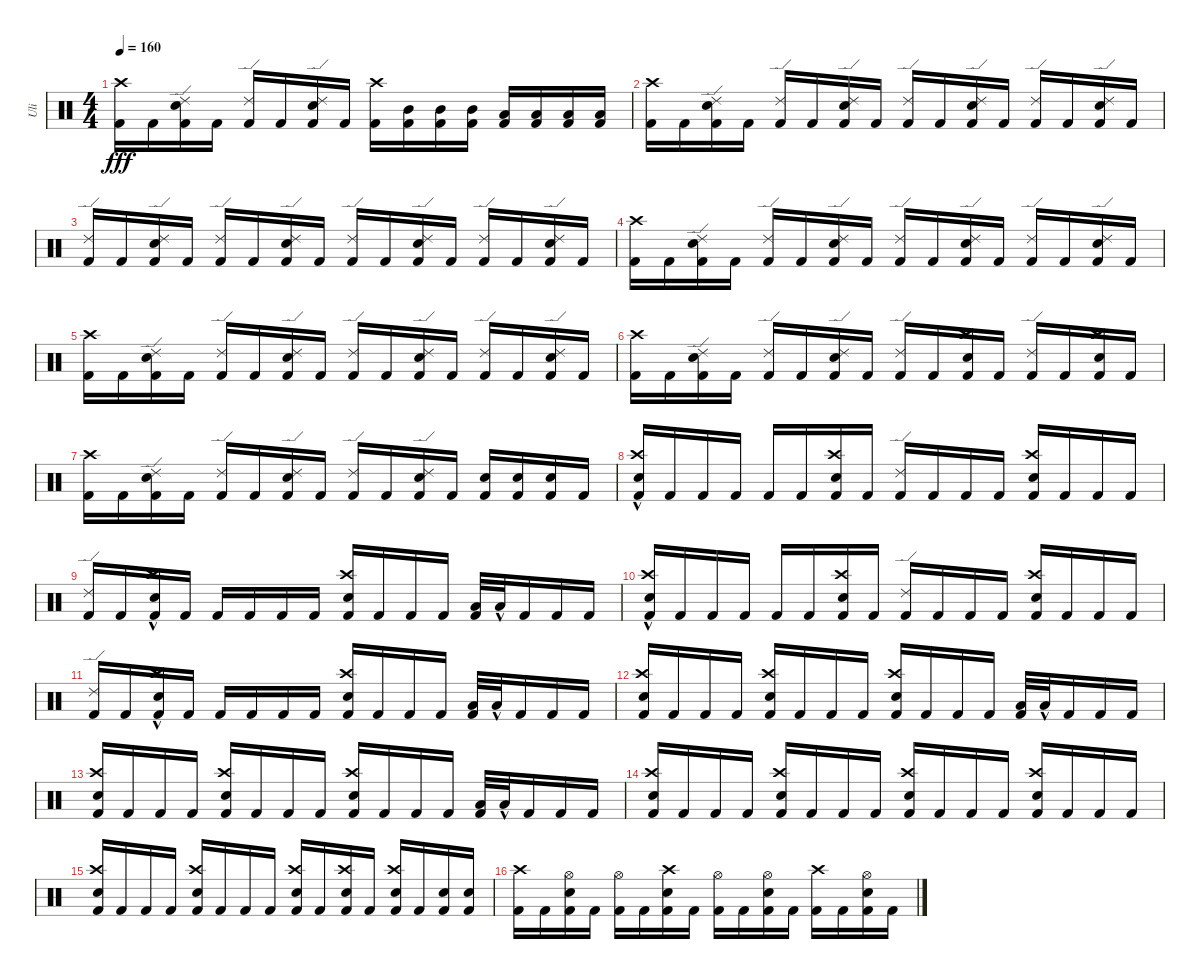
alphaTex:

\track ("Uli" "Uli") {instrument percussion}
\staff {score}
\articulation defaults
\ts (4 4)
\tempo 160
\clef neutral
\ks c
("Kick (hit) 2" "Crash high (hit)").16{dy fff} "Kick (hit) 2".16 ("Kick (hit) 2" "Electric Snare (hit)" "Ride (edge) 2").16 "Kick (hit) 2".16 ("Kick (hit) 2" "Ride (edge) 2").16 "Kick (hit) 2".16 ("Kick (hit) 2" "Electric Snare (hit)" "Ride (edge) 2").16 "Kick (hit) 2".16 ("Kick (hit) 2" "Crash high (hit)").16 ("Kick (hit) 2" "Mid Tom (hit)").16 ("Kick (hit) 2" "Mid Tom (hit)").16 ("Kick (hit) 2" "Mid Tom (hit)").16 ("Kick (hit) 2" "Low Tom (hit)").16 ("Kick (hit) 2" "Low Tom (hit)").16 ("Kick (hit) 2" "Low Tom (hit)").16 ("Kick (hit) 2" "Low Tom (hit)").16 |
("Kick (hit) 2" "Crash high (hit)").16 "Kick (hit) 2".16 ("Kick (hit) 2" "Electric Snare (hit)" "Ride (edge) 2").16 "Kick (hit) 2".16 ("Kick (hit) 2" "Ride (edge) 2").16 "Kick (hit) 2".16 ("Kick (hit) 2" "Electric Snare (hit)" "Ride (edge) 2").16 "Kick (hit) 2".16 ("Kick (hit) 2" "Ride (edge) 2").16 "Kick (hit) 2".16 ("Kick (hit) 2" "Electric Snare (hit)" "Ride (edge) 2").16 "Kick (hit) 2".16 ("Kick (hit) 2" "Ride (edge) 2").16 "Kick (hit) 2".16 ("Kick (hit) 2" "Electric Snare (hit)" "Ride (edge) 2").16 "Kick (hit) 2".16 |
("Kick (hit) 2" "Ride (edge) 2").16 "Kick (hit) 2".16 ("Kick (hit) 2" "Electric Snare (hit)" "Ride (edge) 2").16 "Kick (hit) 2".16 ("Kick (hit) 2" "Ride (edge) 2").16 "Kick (hit) 2".16 ("Kick (hit) 2" "Electric Snare (hit)" "Ride (edge) 2").16 "Kick (hit) 2".16 ("Kick (hit) 2" "Ride (edge) 2").16 "Kick (hit) 2".16 ("Kick (hit) 2" "Electric Snare (hit)" "Ride (edge) 2").16 "Kick (hit) 2".16 ("Kick (hit) 2" "Ride (edge) 2").16 "Kick (hit) 2".16 ("Kick (hit) 2" "Electric Snare (hit)" "Ride (edge) 2").16 "Kick (hit) 2".16 |
("Kick (hit) 2" "Crash high (hit)").16 "Kick (hit) 2".16 ("Kick (hit) 2" "Electric Snare (hit)" "Ride (edge) 2").16 "Kick (hit) 2".16 ("Kick (hit) 2" "Ride (edge) 2").16 "Kick (hit) 2".16 ("Kick (hit) 2" "Electric Snare (hit)" "Ride (edge) 2").16 "Kick (hit) 2".16 ("Kick (hit) 2" "Ride (edge) 2").16 "Kick (hit) 2".16 ("Kick (hit) 2" "Electric Snare (hit)" "Ride (edge) 2").16 "Kick (hit) 2".16 ("Kick (hit) 2" "Ride (edge) 2").16 "Kick (hit) 2".16 ("Kick (hit) 2" "Electric Snare (hit)" "Ride (edge) 2").16 "Kick (hit) 2".16 |
("Kick (hit) 2" "Crash high (hit)").16 "Kick (hit) 2".16 ("Kick (hit) 2" "Electric Snare (hit)" "Ride (edge) 2").16 "Kick (hit) 2".16 ("Kick (hit) 2" "Ride (edge) 2").16 "Kick (hit) 2".16 ("Kick (hit) 2" "Electric Snare (hit)" "Ride (edge) 2").16 "Kick (hit) 2".16 ("Kick (hit) 2" "Ride (edge) 2").16 "Kick (hit) 2".16 ("Kick (hit) 2" "Electric Snare (hit)" "Ride (edge) 2").16 "Kick (hit) 2".16 ("Kick (hit) 2" "Ride (edge) 2").16 "Kick (hit) 2".16 ("Kick (hit) 2" "Electric Snare (hit)" "Ride (edge) 2").16 "Kick (hit) 2".16 |
("Kick (hit) 2" "Crash high (hit)").16 "Kick (hit) 2".16 ("Kick (hit) 2" "Electric Snare (hit)" "Ride (edge) 2").16 "Kick (hit) 2".16 ("Kick (hit) 2" "Ride (edge) 2").16 "Kick (hit) 2".16 ("Kick (hit) 2" "Electric Snare (hit)" "Ride (edge) 2").16 "Kick (hit) 2".16 ("Kick (hit) 2" "Ride (edge) 2").16 "Kick (hit) 2".16 ("Kick (hit) 2" "Electric Snare (hit)" "Crash high (hit)").16 "Kick (hit) 2".16 ("Kick (hit) 2" "Ride (edge) 2").16 "Kick (hit) 2".16 ("Kick (hit) 2" "Electric Snare (hit)" "Crash high (hit)").16 "Kick (hit) 2".16 |
("Kick (hit) 2" "Crash high (hit)").16 "Kick (hit) 2".16 ("Kick (hit) 2" "Electric Snare (hit)" "Ride (edge) 2").16 "Kick (hit) 2".16 ("Kick (hit) 2" "Ride (edge) 2").16 "Kick (hit) 2".16 ("Kick (hit) 2" "Electric Snare (hit)" "Ride (edge) 2").16 "Kick (hit) 2".16 ("Kick (hit) 2" "Ride (edge) 2").16 "Kick (hit) 2".16 ("Kick (hit) 2" "Electric Snare (hit)" "Ride (edge) 2").16 "Kick (hit) 2".16 ("Kick (hit) 2" "Electric Snare (hit)").16 ("Kick (hit) 2" "Electric Snare (hit)").16 ("Kick (hit) 2" "Electric Snare (hit)").16 "Kick (hit) 2".16 |
("Kick (hit) 2" "Crash high (hit)" "Electric Snare (hit)"{hac}).16 "Kick (hit) 2".16 "Kick (hit) 2".16 "Kick (hit) 2".16 "Kick (hit) 2".16 "Kick (hit) 2".16 ("Kick (hit) 2" "Crash high (hit)" "Electric Snare (hit)").16 "Kick (hit) 2".16 ("Kick (hit) 2" "Ride (edge) 2").16 "Kick (hit) 2".16 "Kick (hit) 2".16 "Kick (hit) 2".16 ("Kick (hit) 2" "Electric Snare (hit)" "Crash high (hit)").16 "Kick (hit) 2".16 "Kick (hit) 2".16 "Kick (hit) 2".16 |
("Kick (hit) 2" "Ride (edge) 2").16 "Kick (hit) 2".16 ("Kick (hit) 2" "Crash high (hit)"{hac} "Electric Snare (hit)"{hac}).16 "Kick (hit) 2".16 "Kick (hit) 2".16 "Kick (hit) 2".16 "Kick (hit) 2".16 "Kick (hit) 2".16 ("Kick (hit) 2" "Crash high (hit)" "Electric Snare (hit)").16 "Kick (hit) 2".16 "Kick (hit) 2".16 "Kick (hit) 2".16 ("Kick (hit) 2" "Low Floor Tom (hit)").32 "Low Floor Tom (hit)"{hac}.32 "Kick (hit) 2".16 "Kick (hit) 2".16 "Kick (hit) 2".16 |
("Kick (hit) 2" "Crash high (hit)" "Electric Snare (hit)"{hac}).16 "Kick (hit) 2".16 "Kick (hit) 2".16 "Kick (hit) 2".16 "Kick (hit) 2".16 "Kick (hit) 2".16 ("Kick (hit) 2" "Crash high (hit)" "Electric Snare (hit)").16 "Kick (hit) 2".16 ("Kick (hit) 2" "Ride (edge) 2").16 "Kick (hit) 2".16 "Kick (hit) 2".16 "Kick (hit) 2".16 ("Kick (hit) 2" "Electric Snare (hit)" "Crash high (hit)").16 "Kick (hit) 2".16 "Kick (hit) 2".16 "Kick (hit) 2".16 |
("Kick (hit) 2" "Ride (edge) 2").16 "Kick (hit) 2".16 ("Kick (hit) 2" "Crash high (hit)"{hac} "Electric Snare (hit)"{hac}).16 "Kick (hit) 2".16 "Kick (hit) 2".16 "Kick (hit) 2".16 "Kick (hit) 2".16 "Kick (hit) 2".16 ("Kick (hit) 2" "Crash high (hit)" "Electric Snare (hit)").16 "Kick (hit) 2".16 "Kick (hit) 2".16 "Kick (hit) 2".16 ("Kick (hit) 2" "Low Floor Tom (hit)").32 "Low Floor Tom (hit)"{hac}.32 "Kick (hit) 2".16 "Kick (hit) 2".16 "Kick (hit) 2".16 |
("Kick (hit) 2" "Electric Snare (hit)" "Crash high (hit)").16 "Kick (hit) 2".16 "Kick (hit) 2".16 "Kick (hit) 2".16 ("Kick (hit) 2" "Electric Snare (hit)" "Crash high (hit)").16 "Kick (hit) 2".16 "Kick (hit) 2".16 "Kick (hit) 2".16 ("Kick (hit) 2" "Electric Snare (hit)" "Crash high (hit)").16 "Kick (hit) 2".16 "Kick (hit) 2".16 "Kick (hit) 2".16 ("Kick (hit) 2" "Low Floor Tom (hit)").32 "Low Floor Tom (hit)"{hac}.32 "Kick (hit) 2".16 "Kick (hit) 2".16 "Kick (hit) 2".16 |
("Kick (hit) 2" "Electric Snare (hit)" "Crash high (hit)").16 "Kick (hit) 2".16 "Kick (hit) 2".16 "Kick (hit) 2".16 ("Kick (hit) 2" "Electric Snare (hit)" "Crash high (hit)").16 "Kick (hit) 2".16 "Kick (hit) 2".16 "Kick (hit) 2".16 ("Kick (hit) 2" "Electric Snare (hit)" "Crash high (hit)").16 "Kick (hit) 2".16 "Kick (hit) 2".16 "Kick (hit) 2".16 ("Kick (hit) 2" "Low Floor Tom (hit)").32 "Low Floor Tom (hit)"{hac}.32 "Kick (hit) 2".16 "Kick (hit) 2".16 "Kick (hit) 2".16 |
("Kick (hit) 2" "Electric Snare (hit)" "Crash high (hit)").16 "Kick (hit) 2".16 "Kick (hit) 2".16 "Kick (hit) 2".16 ("Kick (hit) 2" "Electric Snare (hit)" "Crash high (hit)").16 "Kick (hit) 2".16 "Kick (hit) 2".16 "Kick (hit) 2".16 ("Kick (hit) 2" "Electric Snare (hit)" "Crash high (hit)").16 "Kick (hit) 2".16 "Kick (hit) 2".16 "Kick (hit) 2".16 ("Kick (hit) 2" "Electric Snare (hit)" "Crash high (hit)").16 "Kick (hit) 2".16 "Kick (hit) 2".16 "Kick (hit) 2".16 |
("Kick (hit) 2" "Electric Snare (hit)" "Crash high (hit)").16 "Kick (hit) 2".16 "Kick (hit) 2".16 "Kick (hit) 2".16 ("Kick (hit) 2" "Electric Snare (hit)" "Crash high (hit)").16 "Kick (hit) 2".16 "Kick (hit) 2".16 "Kick (hit) 2".16 ("Kick (hit) 2" "Crash high (hit)" "Electric Snare (hit)").16 "Kick (hit) 2".16 ("Kick (hit) 2" "Crash high (hit)" "Electric Snare (hit)").16 "Kick (hit) 2".16 ("Kick (hit) 2" "Crash high (hit)" "Electric Snare (hit)").16 "Kick (hit) 2".16 ("Kick (hit) 2" "Electric Snare (hit)").16 ("Kick (hit) 2" "Electric Snare (hit)").16 |
("Kick (hit) 2" "Crash high (hit)").16 "Kick (hit) 2".16 ("Kick (hit) 2" "Electric Snare (hit)" "Hi-Hat (open)").16 "Kick (hit) 2".16 ("Kick (hit) 2" "Hi-Hat (open)").16 "Kick (hit) 2".16 ("Kick (hit) 2" "Electric Snare (hit)" "Crash high (hit)").16 "Kick (hit) 2".16 ("Kick (hit) 2" "Hi-Hat (open)").16 "Kick (hit) 2".16 ("Kick (hit) 2" "Electric Snare (hit)" "Hi-Hat (open)").16 "Kick (hit) 2".16 ("Kick (hit) 2" "Crash high (hit)").16 "Kick (hit) 2".16 ("Kick (hit) 2" "Electric Snare (hit)" "Hi-Hat (open)").16 "Kick (hit) 2".16
